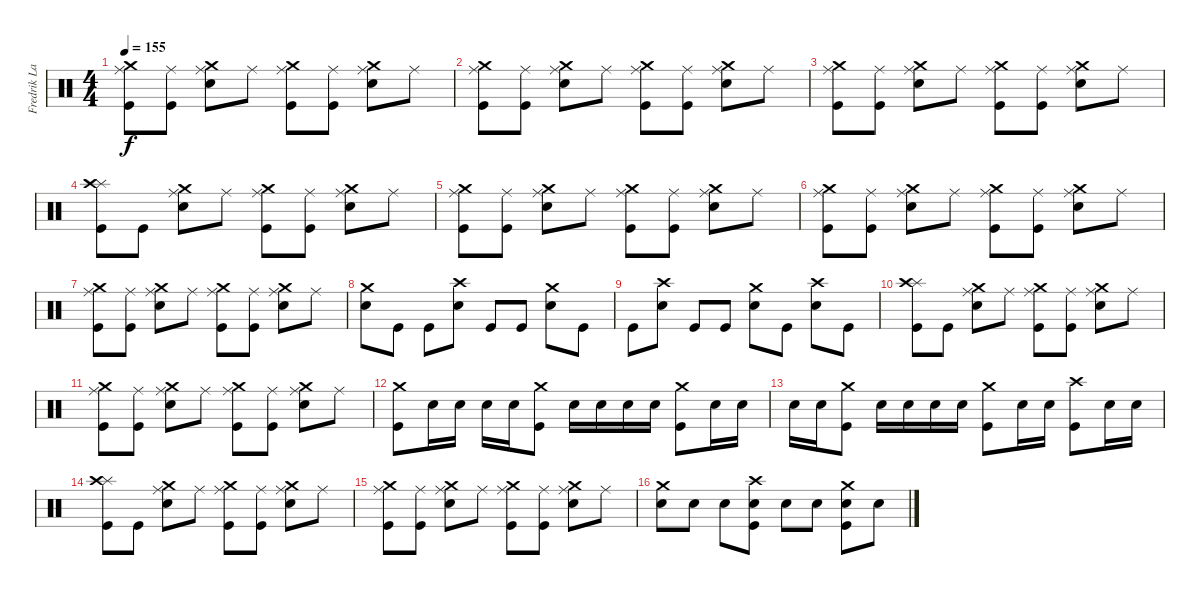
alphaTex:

\track ("Fredrik Larzon Drums" "Fredrik La") {instrument percussion}
\staff {score}
\articulation defaults
\ts (4 4)
\tempo 155
\clef neutral
\ks c
("Ride (middle)" "Crash medium (hit)" "Kick (hit)").8{dy f} ("Ride (middle)" "Kick (hit)").8 ("Ride (middle)" "Crash medium (hit)" "Electric Snare (hit)").8 "Ride (middle)".8 ("Ride (middle)" "Crash medium (hit)" "Kick (hit)").8 ("Ride (middle)" "Kick (hit)").8 ("Ride (middle)" "Crash medium (hit)" "Electric Snare (hit)").8 "Ride (middle)".8 |
("Ride (middle)" "Crash medium (hit)" "Kick (hit)").8 ("Ride (middle)" "Kick (hit)").8 ("Ride (middle)" "Crash medium (hit)" "Electric Snare (hit)").8 "Ride (middle)".8 ("Ride (middle)" "Crash medium (hit)" "Kick (hit)").8 ("Ride (middle)" "Kick (hit)").8 ("Ride (middle)" "Crash medium (hit)" "Electric Snare (hit)").8 "Ride (middle)".8 |
("Ride (middle)" "Crash medium (hit)" "Kick (hit)").8 ("Ride (middle)" "Kick (hit)").8 ("Ride (middle)" "Crash medium (hit)" "Electric Snare (hit)").8 "Ride (middle)".8 ("Ride (middle)" "Crash medium (hit)" "Kick (hit)").8 ("Ride (middle)" "Kick (hit)").8 ("Ride (middle)" "Crash medium (hit)" "Electric Snare (hit)").8 "Ride (middle)".8 |
("Splash (hit)" "Crash high (hit)" "Kick (hit)").8 "Kick (hit)".8 ("Ride (middle)" "Crash medium (hit)" "Electric Snare (hit)").8 "Ride (middle)".8 ("Ride (middle)" "Crash medium (hit)" "Kick (hit)").8 ("Ride (middle)" "Kick (hit)").8 ("Ride (middle)" "Crash medium (hit)" "Electric Snare (hit)").8 "Ride (middle)".8 |
("Ride (middle)" "Crash medium (hit)" "Kick (hit)").8 ("Ride (middle)" "Kick (hit)").8 ("Ride (middle)" "Crash medium (hit)" "Electric Snare (hit)").8 "Ride (middle)".8 ("Ride (middle)" "Crash medium (hit)" "Kick (hit)").8 ("Ride (middle)" "Kick (hit)").8 ("Ride (middle)" "Crash medium (hit)" "Electric Snare (hit)").8 "Ride (middle)".8 |
("Ride (middle)" "Crash medium (hit)" "Kick (hit)").8 ("Ride (middle)" "Kick (hit)").8 ("Ride (middle)" "Crash medium (hit)" "Electric Snare (hit)").8 "Ride (middle)".8 ("Ride (middle)" "Crash medium (hit)" "Kick (hit)").8 ("Ride (middle)" "Kick (hit)").8 ("Ride (middle)" "Crash medium (hit)" "Electric Snare (hit)").8 "Ride (middle)".8 |
("Ride (middle)" "Crash medium (hit)" "Kick (hit)").8 ("Ride (middle)" "Kick (hit)").8 ("Ride (middle)" "Crash medium (hit)" "Electric Snare (hit)").8 "Ride (middle)".8 ("Ride (middle)" "Crash medium (hit)" "Kick (hit)").8 ("Ride (middle)" "Kick (hit)").8 ("Ride (middle)" "Crash medium (hit)" "Electric Snare (hit)").8 "Ride (middle)".8 |
("Crash medium (hit)" "Electric Snare (hit)").8 "Kick (hit)".8 "Kick (hit)".8 ("Crash high (hit)" "Electric Snare (hit)").8 "Kick (hit)".8 "Kick (hit)".8 ("Crash medium (hit)" "Electric Snare (hit)").8 "Kick (hit)".8 |
"Kick (hit)".8 ("Crash high (hit)" "Electric Snare (hit)").8 "Kick (hit)".8 "Kick (hit)".8 ("Crash medium (hit)" "Electric Snare (hit)").8 "Kick (hit)".8 ("Crash high (hit)" "Electric Snare (hit)").8 "Kick (hit)".8 |
("Splash (hit)" "Crash high (hit)" "Kick (hit)").8 "Kick (hit)".8 ("Ride (middle)" "Crash medium (hit)" "Electric Snare (hit)").8 "Ride (middle)".8 ("Ride (middle)" "Crash medium (hit)" "Kick (hit)").8 ("Ride (middle)" "Kick (hit)").8 ("Ride (middle)" "Crash medium (hit)" "Electric Snare (hit)").8 "Ride (middle)".8 |
("Ride (middle)" "Crash medium (hit)" "Kick (hit)").8 ("Ride (middle)" "Kick (hit)").8 ("Ride (middle)" "Crash medium (hit)" "Electric Snare (hit)").8 "Ride (middle)".8 ("Ride (middle)" "Crash medium (hit)" "Kick (hit)").8 ("Ride (middle)" "Kick (hit)").8 ("Ride (middle)" "Crash medium (hit)" "Electric Snare (hit)").8 "Ride (middle)".8 |
("Crash medium (hit)" "Kick (hit)").8 "Electric Snare (hit)".16 "Electric Snare (hit)".16 "Electric Snare (hit)".16 "Electric Snare (hit)".16 ("Crash medium (hit)" "Kick (hit)").8 "Electric Snare (hit)".16 "Electric Snare (hit)".16 "Electric Snare (hit)".16 "Electric Snare (hit)".16 ("Crash medium (hit)" "Kick (hit)").8 "Electric Snare (hit)".16 "Electric Snare (hit)".16 |
"Electric Snare (hit)".16 "Electric Snare (hit)".16 ("Crash medium (hit)" "Kick (hit)").8 "Electric Snare (hit)".16 "Electric Snare (hit)".16 "Electric Snare (hit)".16 "Electric Snare (hit)".16 ("Crash medium (hit)" "Kick (hit)").8 "Electric Snare (hit)".16 "Electric Snare (hit)".16 ("Crash high (hit)" "Kick (hit)").8 "Electric Snare (hit)".16 "Electric Snare (hit)".16 |
("Splash (hit)" "Crash high (hit)" "Kick (hit)").8 "Kick (hit)".8 ("Ride (middle)" "Crash medium (hit)" "Electric Snare (hit)").8 "Ride (middle)".8 ("Ride (middle)" "Crash medium (hit)" "Kick (hit)").8 ("Ride (middle)" "Kick (hit)").8 ("Ride (middle)" "Crash medium (hit)" "Electric Snare (hit)").8 "Ride (middle)".8 |
("Ride (middle)" "Crash medium (hit)" "Kick (hit)").8 ("Ride (middle)" "Kick (hit)").8 ("Ride (middle)" "Crash medium (hit)" "Electric Snare (hit)").8 "Ride (middle)".8 ("Ride (middle)" "Crash medium (hit)" "Kick (hit)").8 ("Ride (middle)" "Kick (hit)").8 ("Ride (middle)" "Crash medium (hit)" "Electric Snare (hit)").8 "Ride (middle)".8 |
("Crash medium (hit)" "Electric Snare (hit)").8 "Electric Snare (hit)".8 "Electric Snare (hit)".8 ("Crash high (hit)" "Electric Snare (hit)" "Kick (hit)").8 "Electric Snare (hit)".8 "Electric Snare (hit)".8 ("Crash medium (hit)" "Electric Snare (hit)" "Kick (hit)").8 "Electric Snare (hit)".8
